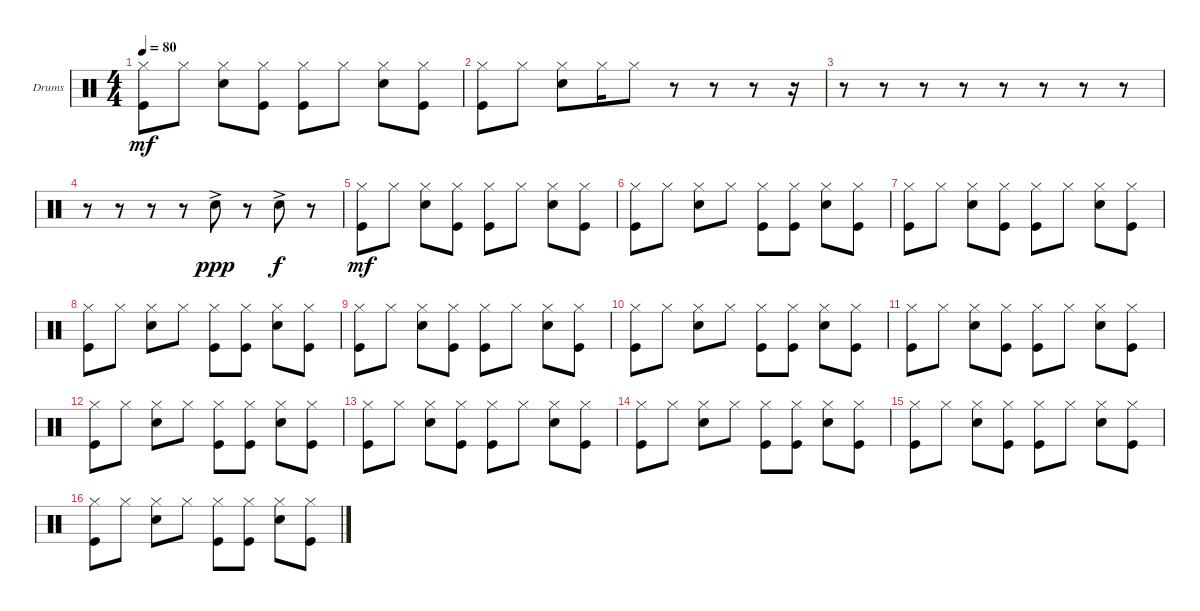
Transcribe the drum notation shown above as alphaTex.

\defaultSystemsLayout 4
\bracketExtendMode groupsimilarinstruments
\firstSystemTrackNameOrientation horizontal
\otherSystemsTrackNameOrientation horizontal
\track ("Drumkit" "Drums") {instrument percussion}
\staff {score}
\articulation defaults
\ts (4 4)
\tempo 80
\clef neutral
\ks c
("Hi-Hat (closed)" "Kick (hit)").8{dy mf} "Hi-Hat (closed)".8 ("Hi-Hat (closed)" "Snare (hit) 2").8 ("Hi-Hat (closed)" "Kick (hit)").8 ("Hi-Hat (closed)" "Kick (hit)").8 "Hi-Hat (closed)".8 ("Hi-Hat (closed)" "Snare (hit) 2").8 ("Hi-Hat (closed)" "Kick (hit)").8 |
("Hi-Hat (closed)" "Kick (hit)").8 "Hi-Hat (closed)".8 ("Hi-Hat (closed)" "Snare (hit) 2").8 "Hi-Hat (closed)".16 "Hi-Hat (closed)".8 r.8 r.8 r.8 r.16 |
r.8 r.8 r.8 r.8 r.8 r.8 r.8 r.8 |
r.8 r.8 r.8 r.8 "Snare (hit) 2"{ac}.8{dy ppp} r.8 "Snare (hit) 2"{ac}.8{dy f} r.8 |
("Hi-Hat (closed)" "Kick (hit)").8{dy mf} "Hi-Hat (closed)".8 ("Hi-Hat (closed)" "Snare (hit) 2").8 ("Hi-Hat (closed)" "Kick (hit)").8 ("Hi-Hat (closed)" "Kick (hit)").8 "Hi-Hat (closed)".8 ("Hi-Hat (closed)" "Snare (hit) 2").8 ("Hi-Hat (closed)" "Kick (hit)").8 |
("Hi-Hat (closed)" "Kick (hit)").8 "Hi-Hat (closed)".8 ("Hi-Hat (closed)" "Snare (hit) 2").8 "Hi-Hat (closed)".8 ("Hi-Hat (closed)" "Kick (hit)").8 ("Hi-Hat (closed)" "Kick (hit)").8 ("Hi-Hat (closed)" "Snare (hit) 2").8 ("Hi-Hat (closed)" "Kick (hit)").8 |
("Hi-Hat (closed)" "Kick (hit)").8 "Hi-Hat (closed)".8 ("Hi-Hat (closed)" "Snare (hit) 2").8 ("Hi-Hat (closed)" "Kick (hit)").8 ("Hi-Hat (closed)" "Kick (hit)").8 "Hi-Hat (closed)".8 ("Hi-Hat (closed)" "Snare (hit) 2").8 ("Hi-Hat (closed)" "Kick (hit)").8 |
("Hi-Hat (closed)" "Kick (hit)").8 "Hi-Hat (closed)".8 ("Hi-Hat (closed)" "Snare (hit) 2").8 "Hi-Hat (closed)".8 ("Hi-Hat (closed)" "Kick (hit)").8 ("Hi-Hat (closed)" "Kick (hit)").8 ("Hi-Hat (closed)" "Snare (hit) 2").8 ("Hi-Hat (closed)" "Kick (hit)").8 |
("Hi-Hat (closed)" "Kick (hit)").8 "Hi-Hat (closed)".8 ("Hi-Hat (closed)" "Snare (hit) 2").8 ("Hi-Hat (closed)" "Kick (hit)").8 ("Hi-Hat (closed)" "Kick (hit)").8 "Hi-Hat (closed)".8 ("Hi-Hat (closed)" "Snare (hit) 2").8 ("Hi-Hat (closed)" "Kick (hit)").8 |
("Hi-Hat (closed)" "Kick (hit)").8 "Hi-Hat (closed)".8 ("Hi-Hat (closed)" "Snare (hit) 2").8 "Hi-Hat (closed)".8 ("Hi-Hat (closed)" "Kick (hit)").8 ("Hi-Hat (closed)" "Kick (hit)").8 ("Hi-Hat (closed)" "Snare (hit) 2").8 ("Hi-Hat (closed)" "Kick (hit)").8 |
("Hi-Hat (closed)" "Kick (hit)").8 "Hi-Hat (closed)".8 ("Hi-Hat (closed)" "Snare (hit) 2").8 ("Hi-Hat (closed)" "Kick (hit)").8 ("Hi-Hat (closed)" "Kick (hit)").8 "Hi-Hat (closed)".8 ("Hi-Hat (closed)" "Snare (hit) 2").8 ("Hi-Hat (closed)" "Kick (hit)").8 |
("Hi-Hat (closed)" "Kick (hit)").8 "Hi-Hat (closed)".8 ("Hi-Hat (closed)" "Snare (hit) 2").8 "Hi-Hat (closed)".8 ("Hi-Hat (closed)" "Kick (hit)").8 ("Hi-Hat (closed)" "Kick (hit)").8 ("Hi-Hat (closed)" "Snare (hit) 2").8 ("Hi-Hat (closed)" "Kick (hit)").8 |
("Hi-Hat (closed)" "Kick (hit)").8 "Hi-Hat (closed)".8 ("Hi-Hat (closed)" "Snare (hit) 2").8 ("Hi-Hat (closed)" "Kick (hit)").8 ("Hi-Hat (closed)" "Kick (hit)").8 "Hi-Hat (closed)".8 ("Hi-Hat (closed)" "Snare (hit) 2").8 ("Hi-Hat (closed)" "Kick (hit)").8 |
("Hi-Hat (closed)" "Kick (hit)").8 "Hi-Hat (closed)".8 ("Hi-Hat (closed)" "Snare (hit) 2").8 "Hi-Hat (closed)".8 ("Hi-Hat (closed)" "Kick (hit)").8 ("Hi-Hat (closed)" "Kick (hit)").8 ("Hi-Hat (closed)" "Snare (hit) 2").8 ("Hi-Hat (closed)" "Kick (hit)").8 |
("Hi-Hat (closed)" "Kick (hit)").8 "Hi-Hat (closed)".8 ("Hi-Hat (closed)" "Snare (hit) 2").8 ("Hi-Hat (closed)" "Kick (hit)").8 ("Hi-Hat (closed)" "Kick (hit)").8 "Hi-Hat (closed)".8 ("Hi-Hat (closed)" "Snare (hit) 2").8 ("Hi-Hat (closed)" "Kick (hit)").8 |
("Hi-Hat (closed)" "Kick (hit)").8 "Hi-Hat (closed)".8 ("Hi-Hat (closed)" "Snare (hit) 2").8 "Hi-Hat (closed)".8 ("Hi-Hat (closed)" "Kick (hit)").8 ("Hi-Hat (closed)" "Kick (hit)").8 ("Hi-Hat (closed)" "Snare (hit) 2").8 ("Hi-Hat (closed)" "Kick (hit)").8
